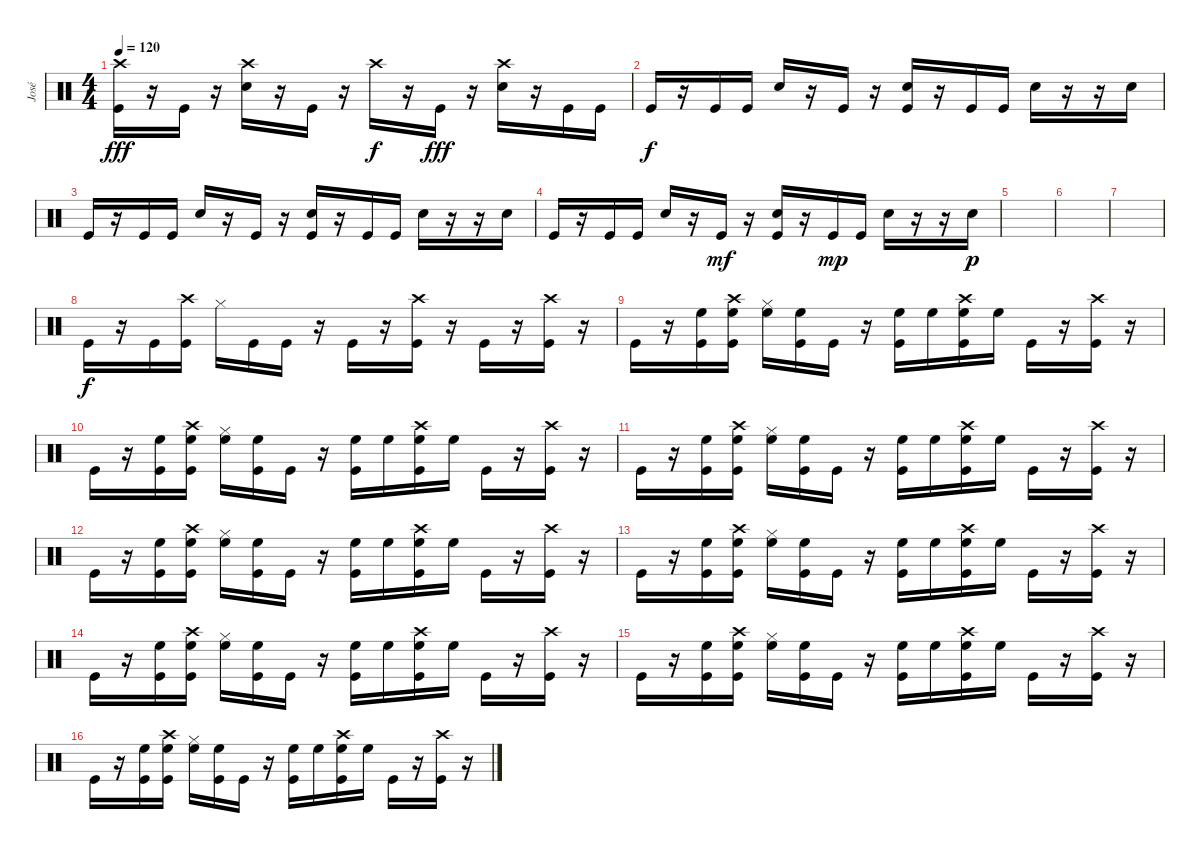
\track ("José" "José") {instrument percussion}
\staff {score}
\articulation defaults
\ts (4 4)
\tempo 120
\clef neutral
\ks c
("Crash high (hit)" "Kick (hit)").16{dy fff} r.16 "Kick (hit)".16 r.16 ("Crash high (hit)" "Electric Snare (hit)").16 r.16 "Kick (hit)".16 r.16 "Crash high (hit)".16{dy f} r.16 "Kick (hit)".16{dy fff} r.16 ("Crash high (hit)" "Electric Snare (hit)").16 r.16 "Kick (hit)".16 "Kick (hit)".16 |
"Kick (hit)".16{dy f} r.16 "Kick (hit)".16 "Kick (hit)".16 "Electric Snare (hit)".16 r.16 "Kick (hit)".16 r.16 ("Electric Snare (hit)" "Kick (hit)").16 r.16 "Kick (hit)".16 "Kick (hit)".16 "Electric Snare (hit)".16 r.16 r.16 "Electric Snare (hit)".16 |
"Kick (hit)".16 r.16 "Kick (hit)".16 "Kick (hit)".16 "Electric Snare (hit)".16 r.16 "Kick (hit)".16 r.16 ("Electric Snare (hit)" "Kick (hit)").16 r.16 "Kick (hit)".16 "Kick (hit)".16 "Electric Snare (hit)".16 r.16 r.16 "Electric Snare (hit)".16 |
"Kick (hit)".16 r.16 "Kick (hit)".16 "Kick (hit)".16 "Electric Snare (hit)".16 r.16 "Kick (hit)".16{dy mf} r.16 ("Electric Snare (hit)" "Kick (hit)").16 r.16 "Kick (hit)".16{dy mp} "Kick (hit)".16 "Electric Snare (hit)".16 r.16 r.16 "Electric Snare (hit)".16{dy p} |
|
|
|
"Kick (hit)".16{dy f} r.16 "Kick (hit)".16 ("Crash high (hit)" "Kick (hit)").16 "Hi-Hat (closed)".16 "Kick (hit)".16 "Kick (hit)".16 r.16 "Kick (hit)".16 r.16 ("Crash high (hit)" "Kick (hit)").16 r.16 "Kick (hit)".16 r.16 ("Crash high (hit)" "Kick (hit)").16 r.16 |
"Kick (hit)".16 r.16 ("High Floor Tom (hit)" "Kick (hit)").16 ("Crash high (hit)" "High Floor Tom (hit)" "Kick (hit)").16 ("High Floor Tom (hit)" "Hi-Hat (closed)").16 ("High Floor Tom (hit)" "Kick (hit)").16 "Kick (hit)".16 r.16 ("High Floor Tom (hit)" "Kick (hit)").16 "High Floor Tom (hit)".16 ("Crash high (hit)" "High Floor Tom (hit)" "Kick (hit)").16 "High Floor Tom (hit)".16 "Kick (hit)".16 r.16 ("Crash high (hit)" "Kick (hit)").16 r.16 |
"Kick (hit)".16 r.16 ("High Floor Tom (hit)" "Kick (hit)").16 ("Crash high (hit)" "High Floor Tom (hit)" "Kick (hit)").16 ("High Floor Tom (hit)" "Hi-Hat (closed)").16 ("High Floor Tom (hit)" "Kick (hit)").16 "Kick (hit)".16 r.16 ("High Floor Tom (hit)" "Kick (hit)").16 "High Floor Tom (hit)".16 ("Crash high (hit)" "High Floor Tom (hit)" "Kick (hit)").16 "High Floor Tom (hit)".16 "Kick (hit)".16 r.16 ("Crash high (hit)" "Kick (hit)").16 r.16 |
"Kick (hit)".16 r.16 ("High Floor Tom (hit)" "Kick (hit)").16 ("Crash high (hit)" "High Floor Tom (hit)" "Kick (hit)").16 ("High Floor Tom (hit)" "Hi-Hat (closed)").16 ("High Floor Tom (hit)" "Kick (hit)").16 "Kick (hit)".16 r.16 ("High Floor Tom (hit)" "Kick (hit)").16 "High Floor Tom (hit)".16 ("Crash high (hit)" "High Floor Tom (hit)" "Kick (hit)").16 "High Floor Tom (hit)".16 "Kick (hit)".16 r.16 ("Crash high (hit)" "Kick (hit)").16 r.16 |
"Kick (hit)".16 r.16 ("High Floor Tom (hit)" "Kick (hit)").16 ("Crash high (hit)" "High Floor Tom (hit)" "Kick (hit)").16 ("High Floor Tom (hit)" "Hi-Hat (closed)").16 ("High Floor Tom (hit)" "Kick (hit)").16 "Kick (hit)".16 r.16 ("High Floor Tom (hit)" "Kick (hit)").16 "High Floor Tom (hit)".16 ("Crash high (hit)" "High Floor Tom (hit)" "Kick (hit)").16 "High Floor Tom (hit)".16 "Kick (hit)".16 r.16 ("Crash high (hit)" "Kick (hit)").16 r.16 |
"Kick (hit)".16 r.16 ("High Floor Tom (hit)" "Kick (hit)").16 ("Crash high (hit)" "High Floor Tom (hit)" "Kick (hit)").16 ("High Floor Tom (hit)" "Hi-Hat (closed)").16 ("High Floor Tom (hit)" "Kick (hit)").16 "Kick (hit)".16 r.16 ("High Floor Tom (hit)" "Kick (hit)").16 "High Floor Tom (hit)".16 ("Crash high (hit)" "High Floor Tom (hit)" "Kick (hit)").16 "High Floor Tom (hit)".16 "Kick (hit)".16 r.16 ("Crash high (hit)" "Kick (hit)").16 r.16 |
"Kick (hit)".16 r.16 ("High Floor Tom (hit)" "Kick (hit)").16 ("Crash high (hit)" "High Floor Tom (hit)" "Kick (hit)").16 ("High Floor Tom (hit)" "Hi-Hat (closed)").16 ("High Floor Tom (hit)" "Kick (hit)").16 "Kick (hit)".16 r.16 ("High Floor Tom (hit)" "Kick (hit)").16 "High Floor Tom (hit)".16 ("Crash high (hit)" "High Floor Tom (hit)" "Kick (hit)").16 "High Floor Tom (hit)".16 "Kick (hit)".16 r.16 ("Crash high (hit)" "Kick (hit)").16 r.16 |
"Kick (hit)".16 r.16 ("High Floor Tom (hit)" "Kick (hit)").16 ("Crash high (hit)" "High Floor Tom (hit)" "Kick (hit)").16 ("High Floor Tom (hit)" "Hi-Hat (closed)").16 ("High Floor Tom (hit)" "Kick (hit)").16 "Kick (hit)".16 r.16 ("High Floor Tom (hit)" "Kick (hit)").16 "High Floor Tom (hit)".16 ("Crash high (hit)" "High Floor Tom (hit)" "Kick (hit)").16 "High Floor Tom (hit)".16 "Kick (hit)".16 r.16 ("Crash high (hit)" "Kick (hit)").16 r.16 |
"Kick (hit)".16 r.16 ("High Floor Tom (hit)" "Kick (hit)").16 ("Crash high (hit)" "High Floor Tom (hit)" "Kick (hit)").16 ("High Floor Tom (hit)" "Hi-Hat (closed)").16 ("High Floor Tom (hit)" "Kick (hit)").16 "Kick (hit)".16 r.16 ("High Floor Tom (hit)" "Kick (hit)").16 "High Floor Tom (hit)".16 ("Crash high (hit)" "High Floor Tom (hit)" "Kick (hit)").16 "High Floor Tom (hit)".16 "Kick (hit)".16 r.16 ("Crash high (hit)" "Kick (hit)").16 r.16
